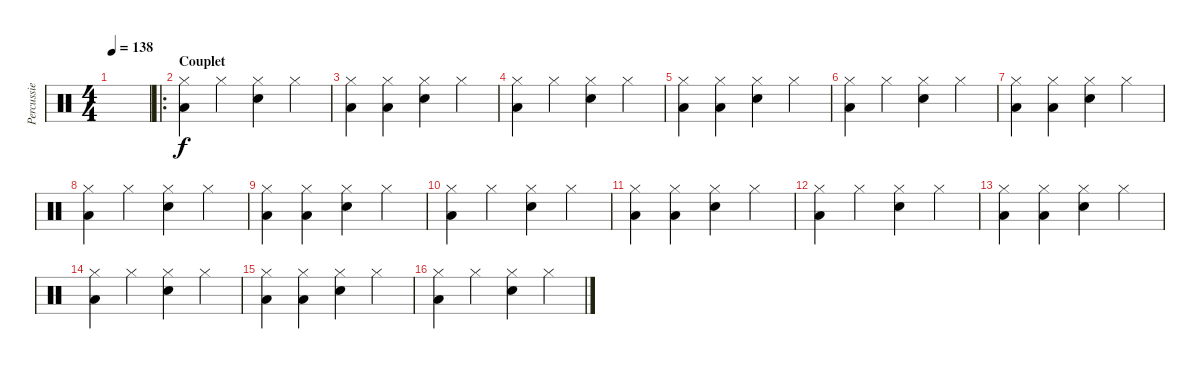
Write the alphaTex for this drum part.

\track ("Percussie" "Percussie") {instrument percussion}
\staff {score}
\articulation defaults
\ts (4 4)
\tempo 138
\clef neutral
\ks c
|
\ro
\section ("" "Couplet")
("Hi-Hat (closed)" "Low Floor Tom (hit)").4 "Hi-Hat (closed)".4 ("Hi-Hat (closed)" "Snare (hit) 2").4 "Hi-Hat (closed)".4 |
("Hi-Hat (closed)" "Low Floor Tom (hit)").4 ("Hi-Hat (closed)" "Low Floor Tom (hit)").4 ("Hi-Hat (closed)" "Snare (hit) 2").4 "Hi-Hat (closed)".4 |
("Hi-Hat (closed)" "Low Floor Tom (hit)").4 "Hi-Hat (closed)".4 ("Hi-Hat (closed)" "Snare (hit) 2").4 "Hi-Hat (closed)".4 |
("Hi-Hat (closed)" "Low Floor Tom (hit)").4 ("Hi-Hat (closed)" "Low Floor Tom (hit)").4 ("Hi-Hat (closed)" "Snare (hit) 2").4 "Hi-Hat (closed)".4 |
("Hi-Hat (closed)" "Low Floor Tom (hit)").4 "Hi-Hat (closed)".4 ("Hi-Hat (closed)" "Snare (hit) 2").4 "Hi-Hat (closed)".4 |
("Hi-Hat (closed)" "Low Floor Tom (hit)").4 ("Hi-Hat (closed)" "Low Floor Tom (hit)").4 ("Hi-Hat (closed)" "Snare (hit) 2").4 "Hi-Hat (closed)".4 |
("Hi-Hat (closed)" "Low Floor Tom (hit)").4 "Hi-Hat (closed)".4 ("Hi-Hat (closed)" "Snare (hit) 2").4 "Hi-Hat (closed)".4 |
("Hi-Hat (closed)" "Low Floor Tom (hit)").4 ("Hi-Hat (closed)" "Low Floor Tom (hit)").4 ("Hi-Hat (closed)" "Snare (hit) 2").4 "Hi-Hat (closed)".4 |
("Hi-Hat (closed)" "Low Floor Tom (hit)").4 "Hi-Hat (closed)".4 ("Hi-Hat (closed)" "Snare (hit) 2").4 "Hi-Hat (closed)".4 |
("Hi-Hat (closed)" "Low Floor Tom (hit)").4 ("Hi-Hat (closed)" "Low Floor Tom (hit)").4 ("Hi-Hat (closed)" "Snare (hit) 2").4 "Hi-Hat (closed)".4 |
("Hi-Hat (closed)" "Low Floor Tom (hit)").4 "Hi-Hat (closed)".4 ("Hi-Hat (closed)" "Snare (hit) 2").4 "Hi-Hat (closed)".4 |
("Hi-Hat (closed)" "Low Floor Tom (hit)").4 ("Hi-Hat (closed)" "Low Floor Tom (hit)").4 ("Hi-Hat (closed)" "Snare (hit) 2").4 "Hi-Hat (closed)".4 |
("Hi-Hat (closed)" "Low Floor Tom (hit)").4 "Hi-Hat (closed)".4 ("Hi-Hat (closed)" "Snare (hit) 2").4 "Hi-Hat (closed)".4 |
("Hi-Hat (closed)" "Low Floor Tom (hit)").4 ("Hi-Hat (closed)" "Low Floor Tom (hit)").4 ("Hi-Hat (closed)" "Snare (hit) 2").4 "Hi-Hat (closed)".4 |
("Hi-Hat (closed)" "Low Floor Tom (hit)").4 "Hi-Hat (closed)".4 ("Hi-Hat (closed)" "Snare (hit) 2").4 "Hi-Hat (closed)".4
